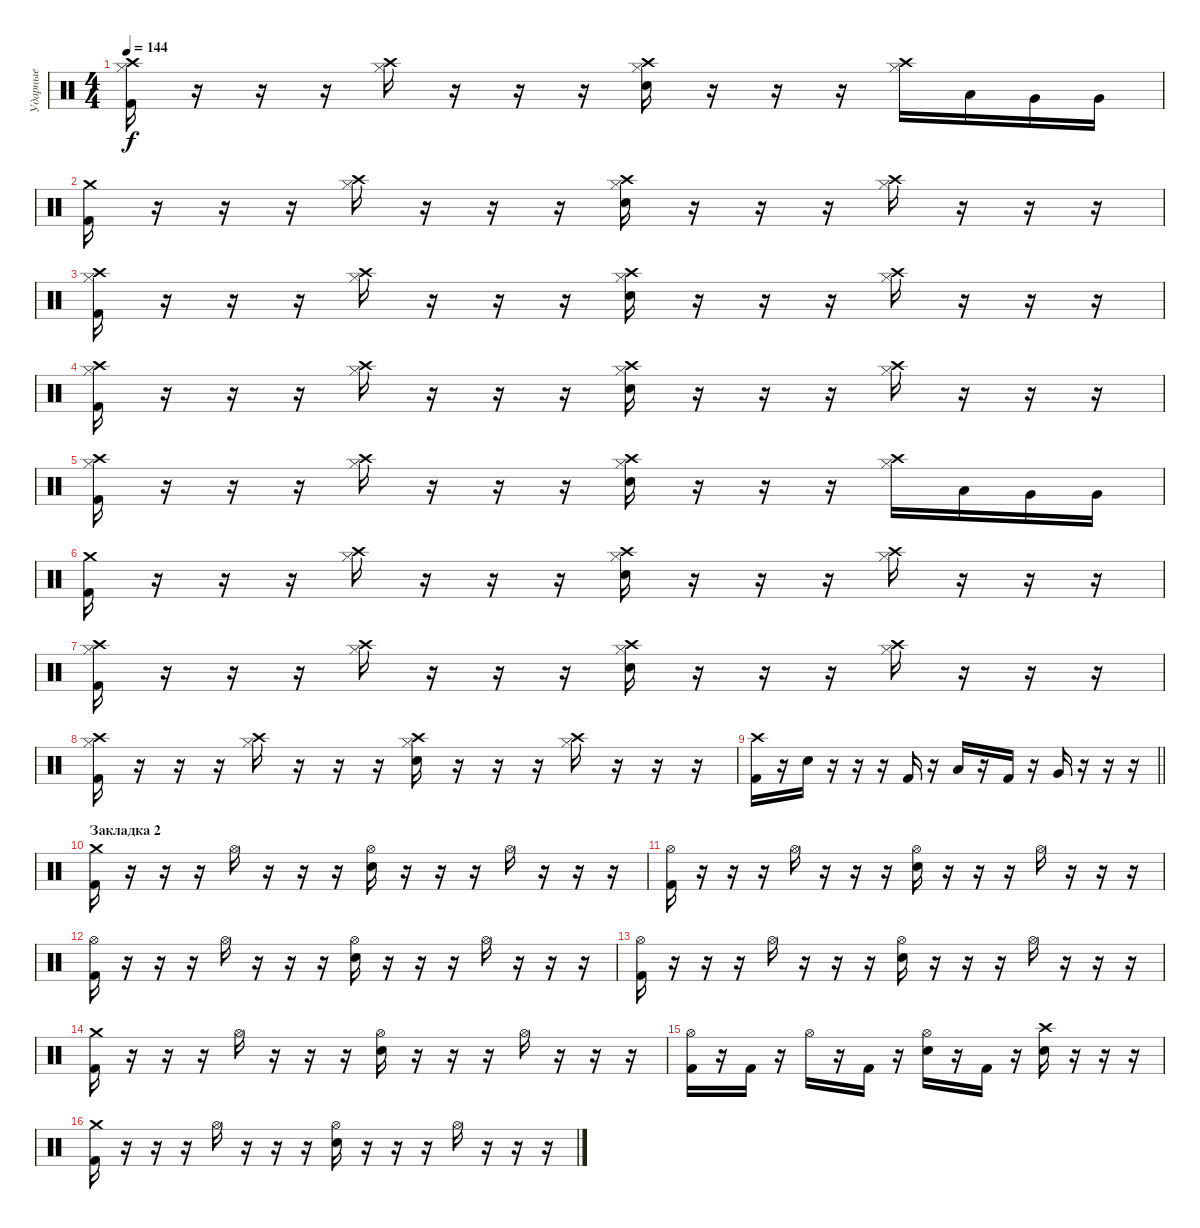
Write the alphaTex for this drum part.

\track ("Ударные" "Ударные") {instrument percussion}
\staff {score}
\articulation defaults
\ts (4 4)
\tempo 144
\clef neutral
\ks c
("Crash high (hit)" "Hi-Hat (closed)" "Kick (hit) 2").16{dy f} r.16 r.16 r.16 ("Crash high (hit)" "Hi-Hat (closed)").16 r.16 r.16 r.16 ("Crash high (hit)" "Hi-Hat (closed)" "Electric Snare (hit)").16 r.16 r.16 r.16 ("Crash high (hit)" "Hi-Hat (closed)").16 "Low Tom (hit)".16 "Very Low Tom (hit)".16 "Very Low Tom (hit)".16 |
("Crash medium (hit)" "Kick (hit) 2").16 r.16 r.16 r.16 ("Crash high (hit)" "Hi-Hat (closed)").16 r.16 r.16 r.16 ("Crash high (hit)" "Hi-Hat (closed)" "Electric Snare (hit)").16 r.16 r.16 r.16 ("Crash high (hit)" "Hi-Hat (closed)").16 r.16 r.16 r.16 |
("Crash high (hit)" "Hi-Hat (closed)" "Kick (hit) 2").16 r.16 r.16 r.16 ("Crash high (hit)" "Hi-Hat (closed)").16 r.16 r.16 r.16 ("Crash high (hit)" "Hi-Hat (closed)" "Electric Snare (hit)").16 r.16 r.16 r.16 ("Crash high (hit)" "Hi-Hat (closed)").16 r.16 r.16 r.16 |
("Crash high (hit)" "Hi-Hat (closed)" "Kick (hit) 2").16 r.16 r.16 r.16 ("Crash high (hit)" "Hi-Hat (closed)").16 r.16 r.16 r.16 ("Crash high (hit)" "Hi-Hat (closed)" "Electric Snare (hit)").16 r.16 r.16 r.16 ("Crash high (hit)" "Hi-Hat (closed)").16 r.16 r.16 r.16 |
("Crash high (hit)" "Hi-Hat (closed)" "Kick (hit) 2").16 r.16 r.16 r.16 ("Crash high (hit)" "Hi-Hat (closed)").16 r.16 r.16 r.16 ("Crash high (hit)" "Hi-Hat (closed)" "Electric Snare (hit)").16 r.16 r.16 r.16 ("Crash high (hit)" "Hi-Hat (closed)").16 "Low Tom (hit)".16 "Very Low Tom (hit)".16 "Very Low Tom (hit)".16 |
("Crash medium (hit)" "Kick (hit) 2").16 r.16 r.16 r.16 ("Crash high (hit)" "Hi-Hat (closed)").16 r.16 r.16 r.16 ("Crash high (hit)" "Hi-Hat (closed)" "Electric Snare (hit)").16 r.16 r.16 r.16 ("Crash high (hit)" "Hi-Hat (closed)").16 r.16 r.16 r.16 |
("Crash high (hit)" "Hi-Hat (closed)" "Kick (hit) 2").16 r.16 r.16 r.16 ("Crash high (hit)" "Hi-Hat (closed)").16 r.16 r.16 r.16 ("Crash high (hit)" "Hi-Hat (closed)" "Electric Snare (hit)").16 r.16 r.16 r.16 ("Crash high (hit)" "Hi-Hat (closed)").16 r.16 r.16 r.16 |
("Crash high (hit)" "Hi-Hat (closed)" "Kick (hit) 2").16 r.16 r.16 r.16 ("Crash high (hit)" "Hi-Hat (closed)").16 r.16 r.16 r.16 ("Crash high (hit)" "Hi-Hat (closed)" "Electric Snare (hit)").16 r.16 r.16 r.16 ("Crash high (hit)" "Hi-Hat (closed)").16 r.16 r.16 r.16 |
\barLineRight lightlight
("Crash high (hit)" "Kick (hit) 2").16 r.16 "Electric Snare (hit)".16 r.16 r.16 r.16 "Kick (hit) 2".16 r.16 "Low Tom (hit)".16 r.16 "Kick (hit) 2".16 r.16 "Very Low Tom (hit)".16 r.16 r.16 r.16 |
\section ("" "Закладка 2")
("Crash medium (hit)" "Kick (hit) 2").16 r.16 r.16 r.16 "Hi-Hat (open)".16 r.16 r.16 r.16 ("Hi-Hat (open)" "Electric Snare (hit)").16 r.16 r.16 r.16 "Hi-Hat (open)".16 r.16 r.16 r.16 |
("Hi-Hat (open)" "Kick (hit) 2").16 r.16 r.16 r.16 "Hi-Hat (open)".16 r.16 r.16 r.16 ("Hi-Hat (open)" "Electric Snare (hit)").16 r.16 r.16 r.16 "Hi-Hat (open)".16 r.16 r.16 r.16 |
("Hi-Hat (open)" "Kick (hit) 2").16 r.16 r.16 r.16 "Hi-Hat (open)".16 r.16 r.16 r.16 ("Hi-Hat (open)" "Electric Snare (hit)").16 r.16 r.16 r.16 "Hi-Hat (open)".16 r.16 r.16 r.16 |
("Hi-Hat (open)" "Kick (hit) 2").16 r.16 r.16 r.16 "Hi-Hat (open)".16 r.16 r.16 r.16 ("Hi-Hat (open)" "Electric Snare (hit)").16 r.16 r.16 r.16 "Hi-Hat (open)".16 r.16 r.16 r.16 |
("Crash medium (hit)" "Kick (hit) 2").16 r.16 r.16 r.16 "Hi-Hat (open)".16 r.16 r.16 r.16 ("Hi-Hat (open)" "Electric Snare (hit)").16 r.16 r.16 r.16 "Hi-Hat (open)".16 r.16 r.16 r.16 |
("Hi-Hat (open)" "Kick (hit) 2").16 r.16 "Kick (hit) 2".16 r.16 "Hi-Hat (open)".16 r.16 "Kick (hit) 2".16 r.16 ("Hi-Hat (open)" "Electric Snare (hit)").16 r.16 "Kick (hit) 2".16 r.16 ("Crash high (hit)" "Electric Snare (hit)").16 r.16 r.16 r.16 |
("Crash medium (hit)" "Kick (hit) 2").16 r.16 r.16 r.16 "Hi-Hat (open)".16 r.16 r.16 r.16 ("Hi-Hat (open)" "Electric Snare (hit)").16 r.16 r.16 r.16 "Hi-Hat (open)".16 r.16 r.16 r.16
